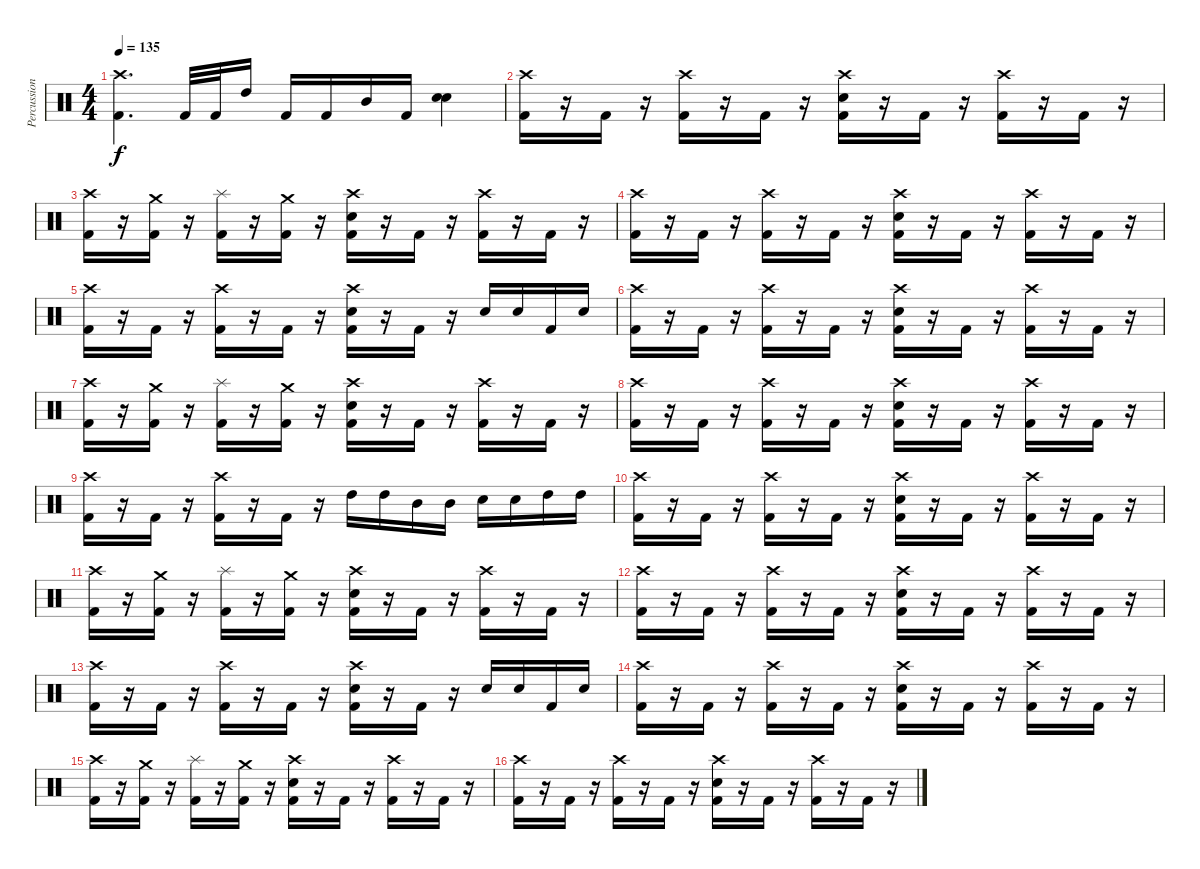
\track ("Percussion" "Percussion") {instrument percussion}
\staff {score}
\articulation defaults
\ts (4 4)
\tempo 135
\clef neutral
\ks c
("Crash high (hit)" "Kick (hit) 2").4{d dy f} "Kick (hit) 2".32 "Kick (hit) 2".32 "High Tom (hit)".16 "Kick (hit) 2".16 "Kick (hit) 2".16 "Mid Tom (hit)".16 "Kick (hit) 2".16 ("Electric Snare (hit)" "Electric Snare (hit)").4 |
("Crash high (hit)" "Kick (hit) 2").16 r.16 "Kick (hit) 2".16 r.16 ("Crash high (hit)" "Kick (hit) 2").16 r.16 "Kick (hit) 2".16 r.16 ("Crash high (hit)" "Electric Snare (hit)" "Kick (hit) 2").16 r.16 "Kick (hit) 2".16 r.16 ("Crash high (hit)" "Kick (hit) 2").16 r.16 "Kick (hit) 2".16 r.16 |
("Crash high (hit)" "Kick (hit) 2").16 r.16 ("Crash medium (hit)" "Kick (hit) 2").16 r.16 ("Splash (hit)" "Kick (hit) 2").16 r.16 ("Crash medium (hit)" "Kick (hit) 2").16 r.16 ("Crash high (hit)" "Electric Snare (hit)" "Kick (hit) 2").16 r.16 "Kick (hit) 2".16 r.16 ("Crash high (hit)" "Kick (hit) 2").16 r.16 "Kick (hit) 2".16 r.16 |
("Crash high (hit)" "Kick (hit) 2").16 r.16 "Kick (hit) 2".16 r.16 ("Crash high (hit)" "Kick (hit) 2").16 r.16 "Kick (hit) 2".16 r.16 ("Crash high (hit)" "Electric Snare (hit)" "Kick (hit) 2").16 r.16 "Kick (hit) 2".16 r.16 ("Crash high (hit)" "Kick (hit) 2").16 r.16 "Kick (hit) 2".16 r.16 |
("Crash high (hit)" "Kick (hit) 2").16 r.16 "Kick (hit) 2".16 r.16 ("Crash high (hit)" "Kick (hit) 2").16 r.16 "Kick (hit) 2".16 r.16 ("Crash high (hit)" "Electric Snare (hit)" "Kick (hit) 2").16 r.16 "Kick (hit) 2".16 r.16 "Electric Snare (hit)".16 "Electric Snare (hit)".16 "Kick (hit) 2".16 "Electric Snare (hit)".16 |
("Crash high (hit)" "Kick (hit) 2").16 r.16 "Kick (hit) 2".16 r.16 ("Crash high (hit)" "Kick (hit) 2").16 r.16 "Kick (hit) 2".16 r.16 ("Crash high (hit)" "Electric Snare (hit)" "Kick (hit) 2").16 r.16 "Kick (hit) 2".16 r.16 ("Crash high (hit)" "Kick (hit) 2").16 r.16 "Kick (hit) 2".16 r.16 |
("Crash high (hit)" "Kick (hit) 2").16 r.16 ("Crash medium (hit)" "Kick (hit) 2").16 r.16 ("Splash (hit)" "Kick (hit) 2").16 r.16 ("Crash medium (hit)" "Kick (hit) 2").16 r.16 ("Crash high (hit)" "Electric Snare (hit)" "Kick (hit) 2").16 r.16 "Kick (hit) 2".16 r.16 ("Crash high (hit)" "Kick (hit) 2").16 r.16 "Kick (hit) 2".16 r.16 |
("Crash high (hit)" "Kick (hit) 2").16 r.16 "Kick (hit) 2".16 r.16 ("Crash high (hit)" "Kick (hit) 2").16 r.16 "Kick (hit) 2".16 r.16 ("Crash high (hit)" "Electric Snare (hit)" "Kick (hit) 2").16 r.16 "Kick (hit) 2".16 r.16 ("Crash high (hit)" "Kick (hit) 2").16 r.16 "Kick (hit) 2".16 r.16 |
("Crash high (hit)" "Kick (hit) 2").16 r.16 "Kick (hit) 2".16 r.16 ("Crash high (hit)" "Kick (hit) 2").16 r.16 "Kick (hit) 2".16 r.16 "High Tom (hit)".16 "High Tom (hit)".16 "Mid Tom (hit)".16 "Mid Tom (hit)".16 "Electric Snare (hit)".16 "Electric Snare (hit)".16 "High Tom (hit)".16 "High Tom (hit)".16 |
("Crash high (hit)" "Kick (hit) 2").16 r.16 "Kick (hit) 2".16 r.16 ("Crash high (hit)" "Kick (hit) 2").16 r.16 "Kick (hit) 2".16 r.16 ("Crash high (hit)" "Electric Snare (hit)" "Kick (hit) 2").16 r.16 "Kick (hit) 2".16 r.16 ("Crash high (hit)" "Kick (hit) 2").16 r.16 "Kick (hit) 2".16 r.16 |
("Crash high (hit)" "Kick (hit) 2").16 r.16 ("Crash medium (hit)" "Kick (hit) 2").16 r.16 ("Splash (hit)" "Kick (hit) 2").16 r.16 ("Crash medium (hit)" "Kick (hit) 2").16 r.16 ("Crash high (hit)" "Electric Snare (hit)" "Kick (hit) 2").16 r.16 "Kick (hit) 2".16 r.16 ("Crash high (hit)" "Kick (hit) 2").16 r.16 "Kick (hit) 2".16 r.16 |
("Crash high (hit)" "Kick (hit) 2").16 r.16 "Kick (hit) 2".16 r.16 ("Crash high (hit)" "Kick (hit) 2").16 r.16 "Kick (hit) 2".16 r.16 ("Crash high (hit)" "Electric Snare (hit)" "Kick (hit) 2").16 r.16 "Kick (hit) 2".16 r.16 ("Crash high (hit)" "Kick (hit) 2").16 r.16 "Kick (hit) 2".16 r.16 |
("Crash high (hit)" "Kick (hit) 2").16 r.16 "Kick (hit) 2".16 r.16 ("Crash high (hit)" "Kick (hit) 2").16 r.16 "Kick (hit) 2".16 r.16 ("Crash high (hit)" "Electric Snare (hit)" "Kick (hit) 2").16 r.16 "Kick (hit) 2".16 r.16 "Electric Snare (hit)".16 "Electric Snare (hit)".16 "Kick (hit) 2".16 "Electric Snare (hit)".16 |
("Crash high (hit)" "Kick (hit) 2").16 r.16 "Kick (hit) 2".16 r.16 ("Crash high (hit)" "Kick (hit) 2").16 r.16 "Kick (hit) 2".16 r.16 ("Crash high (hit)" "Electric Snare (hit)" "Kick (hit) 2").16 r.16 "Kick (hit) 2".16 r.16 ("Crash high (hit)" "Kick (hit) 2").16 r.16 "Kick (hit) 2".16 r.16 |
("Crash high (hit)" "Kick (hit) 2").16 r.16 ("Crash medium (hit)" "Kick (hit) 2").16 r.16 ("Splash (hit)" "Kick (hit) 2").16 r.16 ("Crash medium (hit)" "Kick (hit) 2").16 r.16 ("Crash high (hit)" "Electric Snare (hit)" "Kick (hit) 2").16 r.16 "Kick (hit) 2".16 r.16 ("Crash high (hit)" "Kick (hit) 2").16 r.16 "Kick (hit) 2".16 r.16 |
("Crash high (hit)" "Kick (hit) 2").16 r.16 "Kick (hit) 2".16 r.16 ("Crash high (hit)" "Kick (hit) 2").16 r.16 "Kick (hit) 2".16 r.16 ("Crash high (hit)" "Electric Snare (hit)" "Kick (hit) 2").16 r.16 "Kick (hit) 2".16 r.16 ("Crash high (hit)" "Kick (hit) 2").16 r.16 "Kick (hit) 2".16 r.16
